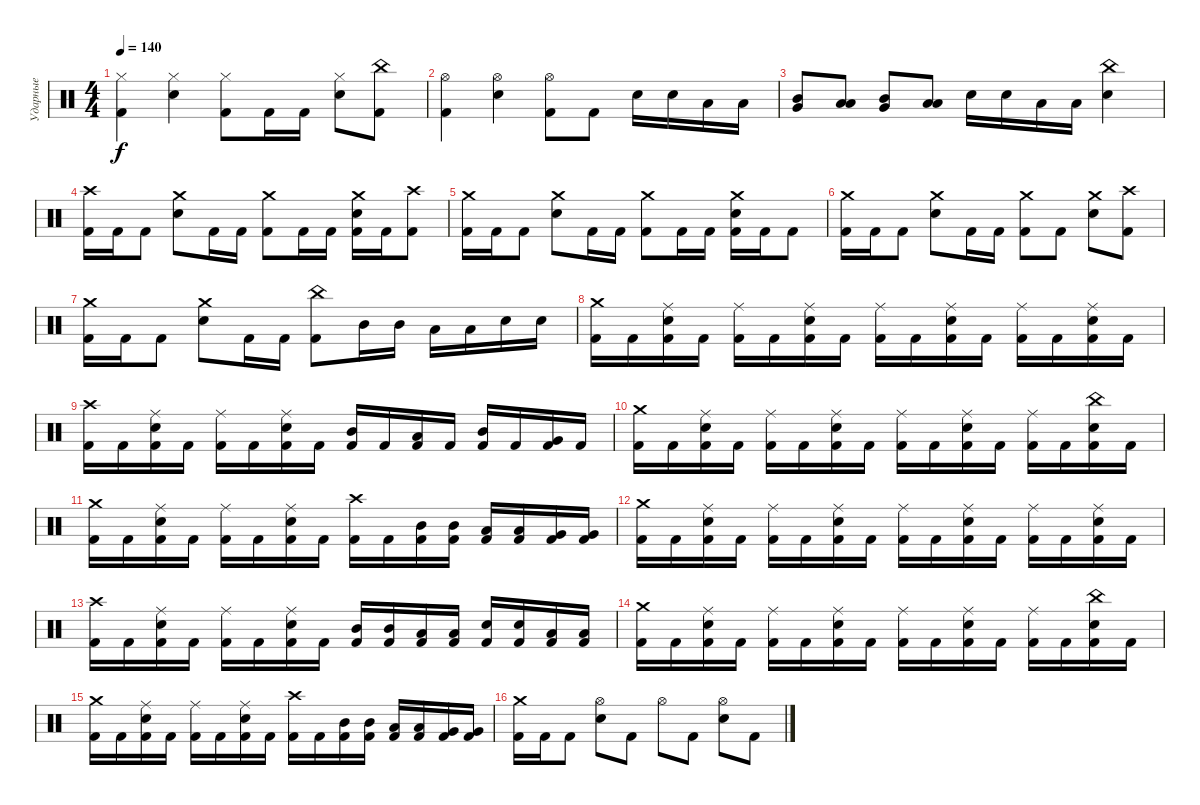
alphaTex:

\track ("Ударные" "Ударные") {instrument percussion}
\staff {score}
\articulation defaults
\ts (4 4)
\tempo 140
\clef neutral
\ks c
("Hi-Hat (closed)" "Kick (hit) 2").4{dy f} ("Hi-Hat (closed)" "Electric Snare (hit)").4 ("Hi-Hat (closed)" "Kick (hit) 2").8 "Kick (hit) 2".16 "Kick (hit) 2".16 ("Hi-Hat (closed)" "Electric Snare (hit)").8 ("China (hit)" "Kick (hit) 2").8 |
("Hi-Hat (open)" "Kick (hit) 2").4 ("Hi-Hat (open)" "Electric Snare (hit)").4 ("Hi-Hat (open)" "Kick (hit) 2").8 "Kick (hit) 2".8 "Electric Snare (hit)".16 "Electric Snare (hit)".16 "Low Tom (hit)".16 "Low Tom (hit)".16 |
("Mid Tom (hit)" "Very Low Tom (hit)").8 ("Low Tom (hit)" "Low Floor Tom (hit)").8 ("Mid Tom (hit)" "Very Low Tom (hit)").8 ("Low Tom (hit)" "Low Floor Tom (hit)").8 "Electric Snare (hit)".16 "Electric Snare (hit)".16 "Low Tom (hit)".16 "Low Tom (hit)".16 ("China (hit)" "Electric Snare (hit)").4 |
("Crash high (hit)" "Kick (hit) 2").16 "Kick (hit) 2".16 "Kick (hit) 2".8 ("Crash medium (hit)" "Electric Snare (hit)").8 "Kick (hit) 2".16 "Kick (hit) 2".16 ("Crash medium (hit)" "Kick (hit) 2").8 "Kick (hit) 2".16 "Kick (hit) 2".16 ("Crash medium (hit)" "Electric Snare (hit)" "Kick (hit) 2").16 "Kick (hit) 2".16 ("Crash high (hit)" "Kick (hit) 2").8 |
("Crash medium (hit)" "Kick (hit) 2").16 "Kick (hit) 2".16 "Kick (hit) 2".8 ("Crash medium (hit)" "Electric Snare (hit)").8 "Kick (hit) 2".16 "Kick (hit) 2".16 ("Crash medium (hit)" "Kick (hit) 2").8 "Kick (hit) 2".16 "Kick (hit) 2".16 ("Crash medium (hit)" "Electric Snare (hit)" "Kick (hit) 2").16 "Kick (hit) 2".16 "Kick (hit) 2".8 |
("Crash medium (hit)" "Kick (hit) 2").16 "Kick (hit) 2".16 "Kick (hit) 2".8 ("Crash medium (hit)" "Electric Snare (hit)").8 "Kick (hit) 2".16 "Kick (hit) 2".16 ("Crash medium (hit)" "Kick (hit) 2").8 "Kick (hit) 2".8 ("Crash medium (hit)" "Electric Snare (hit)").8 ("Crash high (hit)" "Kick (hit) 2").8 |
("Crash medium (hit)" "Kick (hit) 2").16 "Kick (hit) 2".16 "Kick (hit) 2".8 ("Crash medium (hit)" "Electric Snare (hit)").8 "Kick (hit) 2".16 "Kick (hit) 2".16 ("China (hit)" "Kick (hit) 2").8 "Mid Tom (hit)".16 "Mid Tom (hit)".16 "Low Tom (hit)".16 "Low Tom (hit)".16 "Electric Snare (hit)".16 "Electric Snare (hit)".16 |
("Crash medium (hit)" "Kick (hit) 2").16 "Kick (hit) 2".16 ("Ride (middle)" "Electric Snare (hit)" "Kick (hit) 2").16 "Kick (hit) 2".16 ("Ride (middle)" "Kick (hit) 2").16 "Kick (hit) 2".16 ("Ride (middle)" "Electric Snare (hit)" "Kick (hit) 2").16 "Kick (hit) 2".16 ("Ride (middle)" "Kick (hit) 2").16 "Kick (hit) 2".16 ("Ride (middle)" "Electric Snare (hit)" "Kick (hit) 2").16 "Kick (hit) 2".16 ("Ride (middle)" "Kick (hit) 2").16 "Kick (hit) 2".16 ("Ride (middle)" "Electric Snare (hit)" "Kick (hit) 2").16 "Kick (hit) 2".16 |
("Crash high (hit)" "Kick (hit) 2").16 "Kick (hit) 2".16 ("Ride (middle)" "Electric Snare (hit)" "Kick (hit) 2").16 "Kick (hit) 2".16 ("Ride (middle)" "Kick (hit) 2").16 "Kick (hit) 2".16 ("Ride (middle)" "Electric Snare (hit)" "Kick (hit) 2").16 "Kick (hit) 2".16 ("Mid Tom (hit)" "Kick (hit) 2").16 "Kick (hit) 2".16 ("Low Tom (hit)" "Kick (hit) 2").16 "Kick (hit) 2".16 ("Mid Tom (hit)" "Kick (hit) 2").16 "Kick (hit) 2".16 ("Very Low Tom (hit)" "Kick (hit) 2").16 "Kick (hit) 2".16 |
("Crash medium (hit)" "Kick (hit) 2").16 "Kick (hit) 2".16 ("Ride (middle)" "Electric Snare (hit)" "Kick (hit) 2").16 "Kick (hit) 2".16 ("Ride (middle)" "Kick (hit) 2").16 "Kick (hit) 2".16 ("Ride (middle)" "Electric Snare (hit)" "Kick (hit) 2").16 "Kick (hit) 2".16 ("Ride (middle)" "Kick (hit) 2").16 "Kick (hit) 2".16 ("Ride (middle)" "Electric Snare (hit)" "Kick (hit) 2").16 "Kick (hit) 2".16 ("Ride (middle)" "Kick (hit) 2").16 "Kick (hit) 2".16 ("China (hit)" "Electric Snare (hit)" "Kick (hit) 2").16 "Kick (hit) 2".16 |
("Crash medium (hit)" "Kick (hit) 2").16 "Kick (hit) 2".16 ("Ride (middle)" "Electric Snare (hit)" "Kick (hit) 2").16 "Kick (hit) 2".16 ("Ride (middle)" "Kick (hit) 2").16 "Kick (hit) 2".16 ("Ride (middle)" "Electric Snare (hit)" "Kick (hit) 2").16 "Kick (hit) 2".16 ("Crash high (hit)" "Kick (hit) 2").16 "Kick (hit) 2".16 ("Mid Tom (hit)" "Kick (hit) 2").16 ("Mid Tom (hit)" "Kick (hit) 2").16 ("Low Tom (hit)" "Kick (hit) 2").16 ("Low Tom (hit)" "Kick (hit) 2").16 ("Very Low Tom (hit)" "Kick (hit) 2").16 ("Very Low Tom (hit)" "Kick (hit) 2").16 |
("Crash medium (hit)" "Kick (hit) 2").16 "Kick (hit) 2".16 ("Ride (middle)" "Electric Snare (hit)" "Kick (hit) 2").16 "Kick (hit) 2".16 ("Ride (middle)" "Kick (hit) 2").16 "Kick (hit) 2".16 ("Ride (middle)" "Electric Snare (hit)" "Kick (hit) 2").16 "Kick (hit) 2".16 ("Ride (middle)" "Kick (hit) 2").16 "Kick (hit) 2".16 ("Ride (middle)" "Electric Snare (hit)" "Kick (hit) 2").16 "Kick (hit) 2".16 ("Ride (middle)" "Kick (hit) 2").16 "Kick (hit) 2".16 ("Ride (middle)" "Electric Snare (hit)" "Kick (hit) 2").16 "Kick (hit) 2".16 |
("Crash high (hit)" "Kick (hit) 2").16 "Kick (hit) 2".16 ("Ride (middle)" "Electric Snare (hit)" "Kick (hit) 2").16 "Kick (hit) 2".16 ("Ride (middle)" "Kick (hit) 2").16 "Kick (hit) 2".16 ("Ride (middle)" "Electric Snare (hit)" "Kick (hit) 2").16 "Kick (hit) 2".16 ("Mid Tom (hit)" "Kick (hit) 2").16 ("Mid Tom (hit)" "Kick (hit) 2").16 ("Low Tom (hit)" "Kick (hit) 2").16 ("Low Tom (hit)" "Kick (hit) 2").16 ("Electric Snare (hit)" "Kick (hit) 2").16 ("Electric Snare (hit)" "Kick (hit) 2").16 ("Low Tom (hit)" "Kick (hit) 2").16 ("Low Tom (hit)" "Kick (hit) 2").16 |
("Crash medium (hit)" "Kick (hit) 2").16 "Kick (hit) 2".16 ("Ride (middle)" "Electric Snare (hit)" "Kick (hit) 2").16 "Kick (hit) 2".16 ("Ride (middle)" "Kick (hit) 2").16 "Kick (hit) 2".16 ("Ride (middle)" "Electric Snare (hit)" "Kick (hit) 2").16 "Kick (hit) 2".16 ("Ride (middle)" "Kick (hit) 2").16 "Kick (hit) 2".16 ("Ride (middle)" "Electric Snare (hit)" "Kick (hit) 2").16 "Kick (hit) 2".16 ("Ride (middle)" "Kick (hit) 2").16 "Kick (hit) 2".16 ("China (hit)" "Electric Snare (hit)" "Kick (hit) 2").16 "Kick (hit) 2".16 |
("Crash medium (hit)" "Kick (hit) 2").16 "Kick (hit) 2".16 ("Ride (middle)" "Electric Snare (hit)" "Kick (hit) 2").16 "Kick (hit) 2".16 ("Ride (middle)" "Kick (hit) 2").16 "Kick (hit) 2".16 ("Ride (middle)" "Electric Snare (hit)" "Kick (hit) 2").16 "Kick (hit) 2".16 ("Crash high (hit)" "Kick (hit) 2").16 "Kick (hit) 2".16 ("Mid Tom (hit)" "Kick (hit) 2").16 ("Mid Tom (hit)" "Kick (hit) 2").16 ("Low Tom (hit)" "Kick (hit) 2").16 ("Low Tom (hit)" "Kick (hit) 2").16 ("Very Low Tom (hit)" "Kick (hit) 2").16 ("Very Low Tom (hit)" "Kick (hit) 2").16 |
("Crash medium (hit)" "Kick (hit) 2").16 "Kick (hit) 2".16 "Kick (hit) 2".8 ("Hi-Hat (open)" "Electric Snare (hit)").8 "Kick (hit) 2".8 "Hi-Hat (open)".8 "Kick (hit) 2".8 ("Hi-Hat (open)" "Electric Snare (hit)").8 "Kick (hit) 2".8
